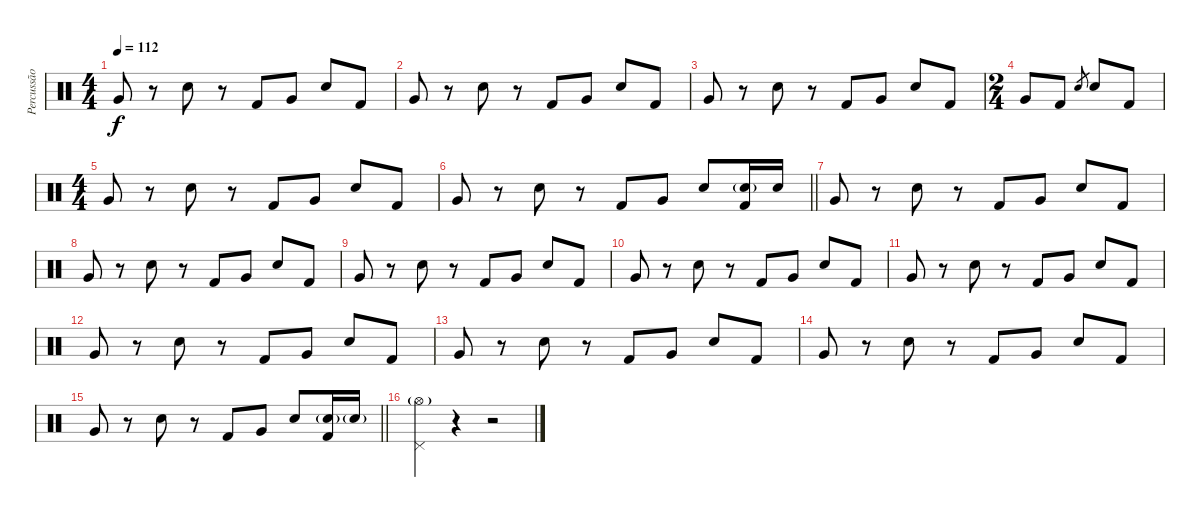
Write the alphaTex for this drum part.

\track ("Percussão" "Percussão") {instrument percussion}
\staff {score}
\articulation defaults
\ts (4 4)
\tempo 112
\clef neutral
\ks c "Very Low Tom (hit)".8{dy f}
r.8 "Electric Snare (hit)".8 r.8 "Kick (hit) 2".8 "Very Low Tom (hit)".8 "Electric Snare (hit)".8 "Kick (hit) 2".8 |
"Very Low Tom (hit)".8 r.8 "Electric Snare (hit)".8 r.8 "Kick (hit) 2".8 "Very Low Tom (hit)".8 "Electric Snare (hit)".8 "Kick (hit) 2".8 |
"Very Low Tom (hit)".8 r.8 "Electric Snare (hit)".8 r.8 "Kick (hit) 2".8 "Very Low Tom (hit)".8 "Electric Snare (hit)".8 "Kick (hit) 2".8 |
\ts (2 4)
"Very Low Tom (hit)".8 "Kick (hit) 2".8 "Electric Snare (hit)".8{gr} "Electric Snare (hit)".8 "Kick (hit) 2".8 |
\ts (4 4)
"Very Low Tom (hit)".8 r.8 "Electric Snare (hit)".8 r.8 "Kick (hit) 2".8 "Very Low Tom (hit)".8 "Electric Snare (hit)".8 "Kick (hit) 2".8 |
\barLineRight lightlight "Very Low Tom (hit)".8
r.8 "Electric Snare (hit)".8 r.8 "Kick (hit) 2".8 "Very Low Tom (hit)".8 "Electric Snare (hit)".8 ("Electric Snare (hit)"{g} "Kick (hit) 2").16 "Electric Snare (hit)".16 |
"Very Low Tom (hit)".8 r.8 "Electric Snare (hit)".8 r.8 "Kick (hit) 2".8 "Very Low Tom (hit)".8 "Electric Snare (hit)".8 "Kick (hit) 2".8 |
"Very Low Tom (hit)".8 r.8 "Electric Snare (hit)".8 r.8 "Kick (hit) 2".8 "Very Low Tom (hit)".8 "Electric Snare (hit)".8 "Kick (hit) 2".8 |
"Very Low Tom (hit)".8 r.8 "Electric Snare (hit)".8 r.8 "Kick (hit) 2".8 "Very Low Tom (hit)".8 "Electric Snare (hit)".8 "Kick (hit) 2".8 |
"Very Low Tom (hit)".8 r.8 "Electric Snare (hit)".8 r.8 "Kick (hit) 2".8 "Very Low Tom (hit)".8 "Electric Snare (hit)".8 "Kick (hit) 2".8 |
"Very Low Tom (hit)".8 r.8 "Electric Snare (hit)".8 r.8 "Kick (hit) 2".8 "Very Low Tom (hit)".8 "Electric Snare (hit)".8 "Kick (hit) 2".8 |
"Very Low Tom (hit)".8 r.8 "Electric Snare (hit)".8 r.8 "Kick (hit) 2".8 "Very Low Tom (hit)".8 "Electric Snare (hit)".8 "Kick (hit) 2".8 |
"Very Low Tom (hit)".8 r.8 "Electric Snare (hit)".8 r.8 "Kick (hit) 2".8 "Very Low Tom (hit)".8 "Electric Snare (hit)".8 "Kick (hit) 2".8 |
"Very Low Tom (hit)".8 r.8 "Electric Snare (hit)".8 r.8 "Kick (hit) 2".8 "Very Low Tom (hit)".8 "Electric Snare (hit)".8 "Kick (hit) 2".8 |
\barLineRight lightlight "Very Low Tom (hit)".8
r.8 "Electric Snare (hit)".8 r.8 "Kick (hit) 2".8 "Very Low Tom (hit)".8 "Electric Snare (hit)".8 ("Kick (hit) 2" "Electric Snare (hit)"{g}).16 "Electric Snare (hit)"{g}.16 |
("Pedal Hi-Hat (hit)" "Hi-Hat (open)"{g}).4 r.4 r.2
